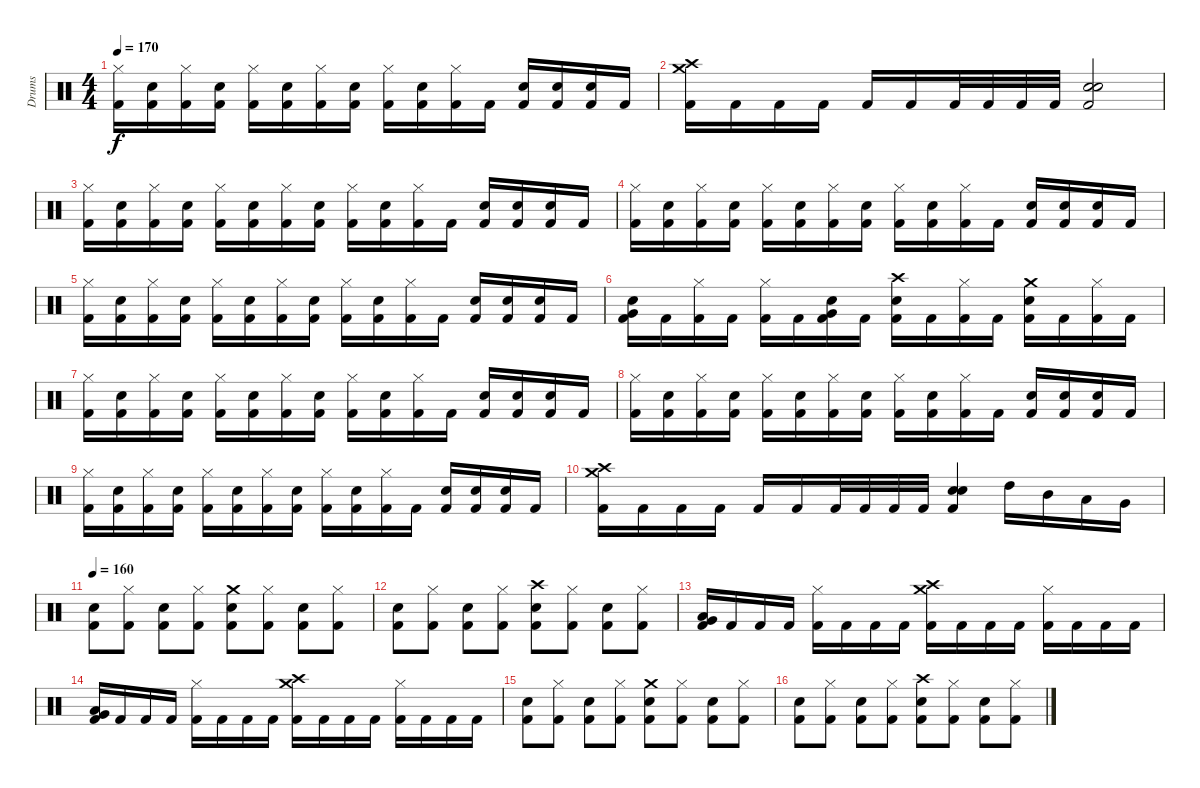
\track ("Drums" "Drums") {instrument percussion}
\staff {score}
\articulation defaults
\ts (4 4)
\tempo 170
\clef neutral
\ks c
("Kick (hit) 2" "Hi-Hat (closed)").16{dy f} ("Kick (hit) 2" "Snare (hit) 2").16 ("Kick (hit) 2" "Hi-Hat (closed)").16 ("Kick (hit) 2" "Snare (hit) 2").16 ("Kick (hit) 2" "Hi-Hat (closed)").16 ("Kick (hit) 2" "Snare (hit) 2").16 ("Kick (hit) 2" "Hi-Hat (closed)").16 ("Kick (hit) 2" "Snare (hit) 2").16 ("Kick (hit) 2" "Hi-Hat (closed)").16 ("Kick (hit) 2" "Snare (hit) 2").16 ("Kick (hit) 2" "Hi-Hat (closed)").16 "Kick (hit) 2".16 ("Kick (hit) 2" "Snare (hit) 2").16 ("Kick (hit) 2" "Snare (hit) 2").16 ("Kick (hit) 2" "Snare (hit) 2").16 "Kick (hit) 2".16 |
("Kick (hit) 2" "Crash high (hit)" "Crash medium (hit)").16 "Kick (hit) 2".16 "Kick (hit) 2".16 "Kick (hit) 2".16 "Kick (hit) 2".16 "Kick (hit) 2".16 "Kick (hit) 2".32 "Kick (hit) 2".32 "Kick (hit) 2".32 "Kick (hit) 2".32 ("Kick (hit) 2" "Snare (hit) 2" "Snare (hit) 2").2 |
("Kick (hit) 2" "Hi-Hat (closed)").16 ("Kick (hit) 2" "Snare (hit) 2").16 ("Kick (hit) 2" "Hi-Hat (closed)").16 ("Kick (hit) 2" "Snare (hit) 2").16 ("Kick (hit) 2" "Hi-Hat (closed)").16 ("Kick (hit) 2" "Snare (hit) 2").16 ("Kick (hit) 2" "Hi-Hat (closed)").16 ("Kick (hit) 2" "Snare (hit) 2").16 ("Kick (hit) 2" "Hi-Hat (closed)").16 ("Kick (hit) 2" "Snare (hit) 2").16 ("Kick (hit) 2" "Hi-Hat (closed)").16 "Kick (hit) 2".16 ("Kick (hit) 2" "Snare (hit) 2").16 ("Kick (hit) 2" "Snare (hit) 2").16 ("Kick (hit) 2" "Snare (hit) 2").16 "Kick (hit) 2".16 |
("Kick (hit) 2" "Hi-Hat (closed)").16 ("Kick (hit) 2" "Snare (hit) 2").16 ("Kick (hit) 2" "Hi-Hat (closed)").16 ("Kick (hit) 2" "Snare (hit) 2").16 ("Kick (hit) 2" "Hi-Hat (closed)").16 ("Kick (hit) 2" "Snare (hit) 2").16 ("Kick (hit) 2" "Hi-Hat (closed)").16 ("Kick (hit) 2" "Snare (hit) 2").16 ("Kick (hit) 2" "Hi-Hat (closed)").16 ("Kick (hit) 2" "Snare (hit) 2").16 ("Kick (hit) 2" "Hi-Hat (closed)").16 "Kick (hit) 2".16 ("Kick (hit) 2" "Snare (hit) 2").16 ("Kick (hit) 2" "Snare (hit) 2").16 ("Kick (hit) 2" "Snare (hit) 2").16 "Kick (hit) 2".16 |
("Kick (hit) 2" "Hi-Hat (closed)").16 ("Kick (hit) 2" "Snare (hit) 2").16 ("Kick (hit) 2" "Hi-Hat (closed)").16 ("Kick (hit) 2" "Snare (hit) 2").16 ("Kick (hit) 2" "Hi-Hat (closed)").16 ("Kick (hit) 2" "Snare (hit) 2").16 ("Kick (hit) 2" "Hi-Hat (closed)").16 ("Kick (hit) 2" "Snare (hit) 2").16 ("Kick (hit) 2" "Hi-Hat (closed)").16 ("Kick (hit) 2" "Snare (hit) 2").16 ("Kick (hit) 2" "Hi-Hat (closed)").16 "Kick (hit) 2".16 ("Kick (hit) 2" "Snare (hit) 2").16 ("Kick (hit) 2" "Snare (hit) 2").16 ("Kick (hit) 2" "Snare (hit) 2").16 "Kick (hit) 2".16 |
("Kick (hit) 2" "Snare (hit) 2" "Very Low Tom (hit)").16 "Kick (hit) 2".16 ("Kick (hit) 2" "Hi-Hat (closed)").16 "Kick (hit) 2".16 ("Kick (hit) 2" "Hi-Hat (closed)").16 "Kick (hit) 2".16 ("Kick (hit) 2" "Snare (hit) 2" "Very Low Tom (hit)").16 "Kick (hit) 2".16 ("Kick (hit) 2" "Snare (hit) 2" "Crash high (hit)").16 "Kick (hit) 2".16 ("Kick (hit) 2" "Hi-Hat (closed)").16 "Kick (hit) 2".16 ("Kick (hit) 2" "Snare (hit) 2" "Crash medium (hit)").16 "Kick (hit) 2".16 ("Kick (hit) 2" "Hi-Hat (closed)").16 "Kick (hit) 2".16 |
("Kick (hit) 2" "Hi-Hat (closed)").16 ("Kick (hit) 2" "Snare (hit) 2").16 ("Kick (hit) 2" "Hi-Hat (closed)").16 ("Kick (hit) 2" "Snare (hit) 2").16 ("Kick (hit) 2" "Hi-Hat (closed)").16 ("Kick (hit) 2" "Snare (hit) 2").16 ("Kick (hit) 2" "Hi-Hat (closed)").16 ("Kick (hit) 2" "Snare (hit) 2").16 ("Kick (hit) 2" "Hi-Hat (closed)").16 ("Kick (hit) 2" "Snare (hit) 2").16 ("Kick (hit) 2" "Hi-Hat (closed)").16 "Kick (hit) 2".16 ("Kick (hit) 2" "Snare (hit) 2").16 ("Kick (hit) 2" "Snare (hit) 2").16 ("Kick (hit) 2" "Snare (hit) 2").16 "Kick (hit) 2".16 |
("Kick (hit) 2" "Hi-Hat (closed)").16 ("Kick (hit) 2" "Snare (hit) 2").16 ("Kick (hit) 2" "Hi-Hat (closed)").16 ("Kick (hit) 2" "Snare (hit) 2").16 ("Kick (hit) 2" "Hi-Hat (closed)").16 ("Kick (hit) 2" "Snare (hit) 2").16 ("Kick (hit) 2" "Hi-Hat (closed)").16 ("Kick (hit) 2" "Snare (hit) 2").16 ("Kick (hit) 2" "Hi-Hat (closed)").16 ("Kick (hit) 2" "Snare (hit) 2").16 ("Kick (hit) 2" "Hi-Hat (closed)").16 "Kick (hit) 2".16 ("Kick (hit) 2" "Snare (hit) 2").16 ("Kick (hit) 2" "Snare (hit) 2").16 ("Kick (hit) 2" "Snare (hit) 2").16 "Kick (hit) 2".16 |
("Kick (hit) 2" "Hi-Hat (closed)").16 ("Kick (hit) 2" "Snare (hit) 2").16 ("Kick (hit) 2" "Hi-Hat (closed)").16 ("Kick (hit) 2" "Snare (hit) 2").16 ("Kick (hit) 2" "Hi-Hat (closed)").16 ("Kick (hit) 2" "Snare (hit) 2").16 ("Kick (hit) 2" "Hi-Hat (closed)").16 ("Kick (hit) 2" "Snare (hit) 2").16 ("Kick (hit) 2" "Hi-Hat (closed)").16 ("Kick (hit) 2" "Snare (hit) 2").16 ("Kick (hit) 2" "Hi-Hat (closed)").16 "Kick (hit) 2".16 ("Kick (hit) 2" "Snare (hit) 2").16 ("Kick (hit) 2" "Snare (hit) 2").16 ("Kick (hit) 2" "Snare (hit) 2").16 "Kick (hit) 2".16 |
("Kick (hit) 2" "Crash high (hit)" "Crash medium (hit)").16 "Kick (hit) 2".16 "Kick (hit) 2".16 "Kick (hit) 2".16 "Kick (hit) 2".16 "Kick (hit) 2".16 "Kick (hit) 2".32 "Kick (hit) 2".32 "Kick (hit) 2".32 "Kick (hit) 2".32 ("Kick (hit) 2" "Snare (hit) 2" "Snare (hit) 2").4 "High Tom (hit)".16 "Mid Tom (hit)".16 "Low Tom (hit)".16 "Very Low Tom (hit)".16 |
\tempo 160
("Kick (hit) 2" "Snare (hit) 2").8 ("Kick (hit) 2" "Hi-Hat (closed)").8 ("Kick (hit) 2" "Snare (hit) 2").8 ("Kick (hit) 2" "Hi-Hat (closed)").8 ("Kick (hit) 2" "Crash medium (hit)" "Snare (hit) 2").8 ("Kick (hit) 2" "Hi-Hat (closed)").8 ("Kick (hit) 2" "Snare (hit) 2").8 ("Kick (hit) 2" "Hi-Hat (closed)").8 |
("Kick (hit) 2" "Snare (hit) 2").8 ("Kick (hit) 2" "Hi-Hat (closed)").8 ("Kick (hit) 2" "Snare (hit) 2").8 ("Kick (hit) 2" "Hi-Hat (closed)").8 ("Kick (hit) 2" "Crash high (hit)" "Snare (hit) 2").8 ("Kick (hit) 2" "Hi-Hat (closed)").8 ("Kick (hit) 2" "Snare (hit) 2").8 ("Kick (hit) 2" "Hi-Hat (closed)").8 |
("Kick (hit) 2" "Very Low Tom (hit)" "Low Tom (hit)").16 "Kick (hit) 2".16 "Kick (hit) 2".16 "Kick (hit) 2".16 ("Kick (hit) 2" "Hi-Hat (closed)").16 "Kick (hit) 2".16 "Kick (hit) 2".16 "Kick (hit) 2".16 ("Kick (hit) 2" "Crash high (hit)" "Crash medium (hit)").16 "Kick (hit) 2".16 "Kick (hit) 2".16 "Kick (hit) 2".16 ("Kick (hit) 2" "Hi-Hat (closed)").16 "Kick (hit) 2".16 "Kick (hit) 2".16 "Kick (hit) 2".16 |
("Kick (hit) 2" "Very Low Tom (hit)" "Low Tom (hit)").16 "Kick (hit) 2".16 "Kick (hit) 2".16 "Kick (hit) 2".16 ("Kick (hit) 2" "Hi-Hat (closed)").16 "Kick (hit) 2".16 "Kick (hit) 2".16 "Kick (hit) 2".16 ("Kick (hit) 2" "Crash medium (hit)" "Crash high (hit)").16 "Kick (hit) 2".16 "Kick (hit) 2".16 "Kick (hit) 2".16 ("Kick (hit) 2" "Hi-Hat (closed)").16 "Kick (hit) 2".16 "Kick (hit) 2".16 "Kick (hit) 2".16 |
("Kick (hit) 2" "Snare (hit) 2").8 ("Kick (hit) 2" "Hi-Hat (closed)").8 ("Kick (hit) 2" "Snare (hit) 2").8 ("Kick (hit) 2" "Hi-Hat (closed)").8 ("Kick (hit) 2" "Crash medium (hit)" "Snare (hit) 2").8 ("Kick (hit) 2" "Hi-Hat (closed)").8 ("Kick (hit) 2" "Snare (hit) 2").8 ("Kick (hit) 2" "Hi-Hat (closed)").8 |
("Kick (hit) 2" "Snare (hit) 2").8 ("Kick (hit) 2" "Hi-Hat (closed)").8 ("Kick (hit) 2" "Snare (hit) 2").8 ("Kick (hit) 2" "Hi-Hat (closed)").8 ("Kick (hit) 2" "Crash high (hit)" "Snare (hit) 2").8 ("Kick (hit) 2" "Hi-Hat (closed)").8 ("Kick (hit) 2" "Snare (hit) 2").8 ("Kick (hit) 2" "Hi-Hat (closed)").8
